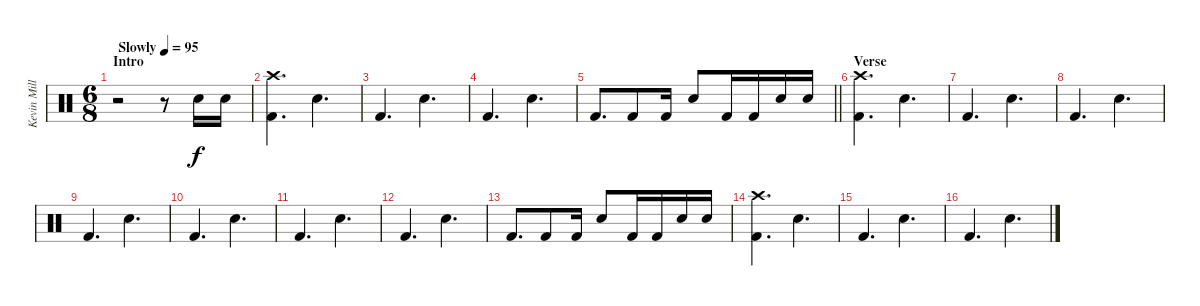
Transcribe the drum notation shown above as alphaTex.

\track ("Kevin Miller (Drums)" "Kevin Mill") {instrument percussion}
\staff {score}
\articulation defaults
\ts (6 8)
\section ("" "Intro")
\tempo (95 "Slowly")
\clef neutral
\ks c
r.2{dy f} r.8 "Electric Snare (hit)".16 "Electric Snare (hit)".16 |
("Crash high (hit)" "Kick (hit) 2").4{d} "Electric Snare (hit)".4{d} |
"Kick (hit) 2".4{d} "Electric Snare (hit)".4{d} |
"Kick (hit) 2".4{d} "Electric Snare (hit)".4{d} |
\barLineRight lightlight "Kick (hit) 2".8{d} "Kick (hit) 2".8 "Kick (hit) 2".16 "Electric Snare (hit)".8 "Kick (hit) 2".16 "Kick (hit) 2".16 "Electric Snare (hit)".16 "Electric Snare (hit)".16
|
\section ("" "Verse")
("Crash high (hit)" "Kick (hit) 2").4{d} "Electric Snare (hit)".4{d} |
"Kick (hit) 2".4{d} "Electric Snare (hit)".4{d} |
"Kick (hit) 2".4{d} "Electric Snare (hit)".4{d} |
"Kick (hit) 2".4{d} "Electric Snare (hit)".4{d} |
"Kick (hit) 2".4{d} "Electric Snare (hit)".4{d} |
"Kick (hit) 2".4{d} "Electric Snare (hit)".4{d} |
"Kick (hit) 2".4{d} "Electric Snare (hit)".4{d} |
"Kick (hit) 2".8{d} "Kick (hit) 2".8 "Kick (hit) 2".16 "Electric Snare (hit)".8 "Kick (hit) 2".16 "Kick (hit) 2".16 "Electric Snare (hit)".16 "Electric Snare (hit)".16 |
("Crash high (hit)" "Kick (hit) 2").4{d} "Electric Snare (hit)".4{d} |
"Kick (hit) 2".4{d} "Electric Snare (hit)".4{d} |
"Kick (hit) 2".4{d} "Electric Snare (hit)".4{d}
